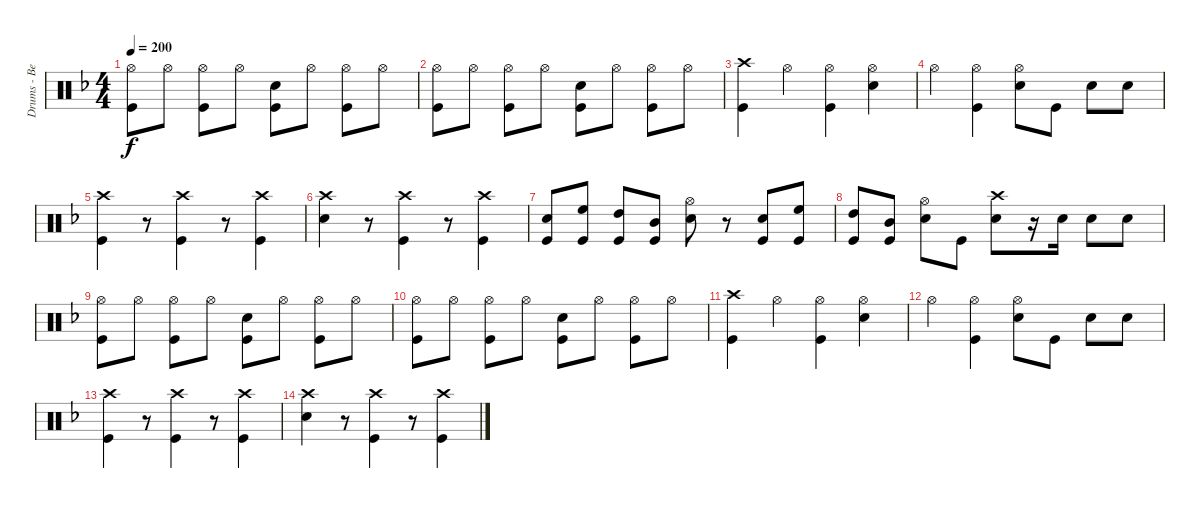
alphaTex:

\track ("Drums - Ben Johnston" "Drums - Be") {instrument percussion}
\staff {score}
\articulation defaults
\ts (4 4)
\tempo 200
\clef neutral
\ks f
("Hi-Hat (open)" "Kick (hit)").8{dy f} "Hi-Hat (open)".8 ("Hi-Hat (open)" "Kick (hit)").8 "Hi-Hat (open)".8 ("Snare (hit) 2" "Kick (hit)").8 "Hi-Hat (open)".8 ("Hi-Hat (open)" "Kick (hit)").8 "Hi-Hat (open)".8 |
("Hi-Hat (open)" "Kick (hit)").8 "Hi-Hat (open)".8 ("Hi-Hat (open)" "Kick (hit)").8 "Hi-Hat (open)".8 ("Snare (hit) 2" "Kick (hit)").8 "Hi-Hat (open)".8 ("Hi-Hat (open)" "Kick (hit)").8 "Hi-Hat (open)".8 |
("Crash high (hit)" "Kick (hit)").4 "Hi-Hat (open)".4 ("Hi-Hat (open)" "Kick (hit)").4 ("Hi-Hat (open)" "Snare (hit) 2").4 |
"Hi-Hat (open)".4 ("Hi-Hat (open)" "Kick (hit)").4 ("Hi-Hat (open)" "Snare (hit) 2").8 "Kick (hit)".8 "Snare (hit) 2".8 "Snare (hit) 2".8 |
("Crash high (hit)" "Kick (hit)").4 r.8 ("Crash high (hit)" "Kick (hit)").4 r.8 ("Crash high (hit)" "Kick (hit)").4 |
("Crash high (hit)" "Snare (hit) 2").4 r.8 ("Crash high (hit)" "Kick (hit)").4 r.8 ("Crash high (hit)" "Kick (hit)").4 |
("Snare (hit) 2" "Kick (hit)").8 ("High Floor Tom (hit)" "Kick (hit)").8 ("High Tom (hit)" "Kick (hit)").8 ("Mid Tom (hit)" "Kick (hit)").8 ("Hi-Hat (open)" "Snare (hit) 2").8 r.8 ("Snare (hit) 2" "Kick (hit)").8 ("High Floor Tom (hit)" "Kick (hit)").8 |
("High Tom (hit)" "Kick (hit)").8 ("Mid Tom (hit)" "Kick (hit)").8 ("Hi-Hat (open)" "Snare (hit) 2").8 "Kick (hit)".8 ("Crash high (hit)" "Snare (hit) 2").8 r.16 "Snare (hit) 2".16 "Snare (hit) 2".8 "Snare (hit) 2".8 |
("Hi-Hat (open)" "Kick (hit)").8 "Hi-Hat (open)".8 ("Hi-Hat (open)" "Kick (hit)").8 "Hi-Hat (open)".8 ("Snare (hit) 2" "Kick (hit)").8 "Hi-Hat (open)".8 ("Hi-Hat (open)" "Kick (hit)").8 "Hi-Hat (open)".8 |
("Hi-Hat (open)" "Kick (hit)").8 "Hi-Hat (open)".8 ("Hi-Hat (open)" "Kick (hit)").8 "Hi-Hat (open)".8 ("Snare (hit) 2" "Kick (hit)").8 "Hi-Hat (open)".8 ("Hi-Hat (open)" "Kick (hit)").8 "Hi-Hat (open)".8 |
("Crash high (hit)" "Kick (hit)").4 "Hi-Hat (open)".4 ("Hi-Hat (open)" "Kick (hit)").4 ("Hi-Hat (open)" "Snare (hit) 2").4 |
"Hi-Hat (open)".4 ("Hi-Hat (open)" "Kick (hit)").4 ("Hi-Hat (open)" "Snare (hit) 2").8 "Kick (hit)".8 "Snare (hit) 2".8 "Snare (hit) 2".8 |
("Crash high (hit)" "Kick (hit)").4 r.8 ("Crash high (hit)" "Kick (hit)").4 r.8 ("Crash high (hit)" "Kick (hit)").4 |
("Crash high (hit)" "Snare (hit) 2").4 r.8 ("Crash high (hit)" "Kick (hit)").4 r.8 ("Crash high (hit)" "Kick (hit)").4
